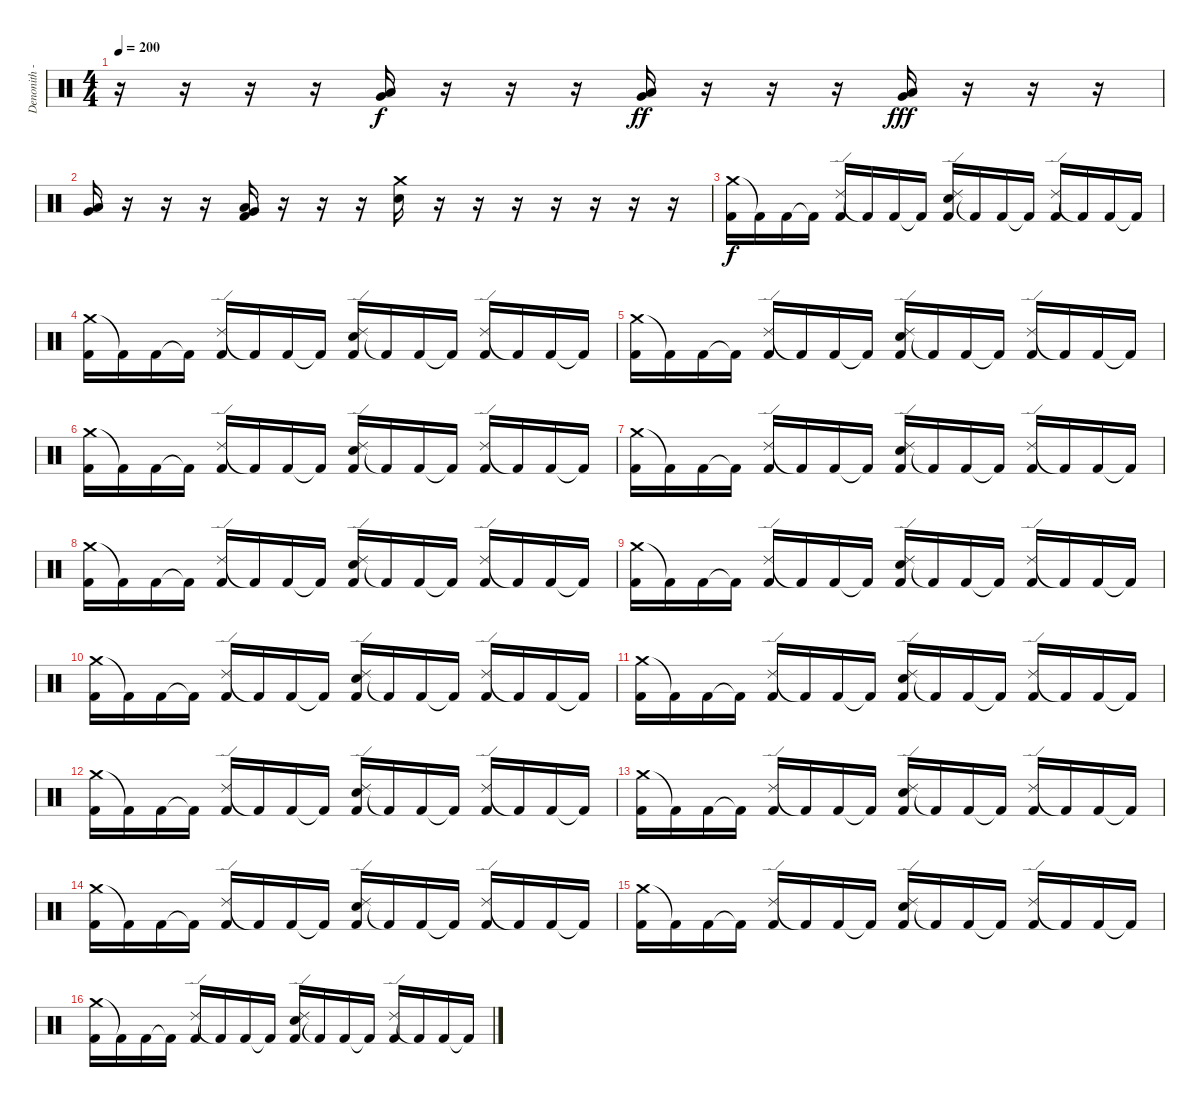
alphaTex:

\track ("Denonith - Spyros" "Denonith -") {instrument percussion}
\staff {score}
\articulation defaults
\ts (4 4)
\tempo 200
\clef neutral
\ks c
r.16{dy f} r.16 r.16 r.16 ("Very Low Tom (hit)" "Low Floor Tom (hit)").16 r.16 r.16 r.16 ("Low Floor Tom (hit)" "Very Low Tom (hit)").16{dy ff} r.16 r.16 r.16 ("Very Low Tom (hit)" "Low Floor Tom (hit)").16{dy fff} r.16 r.16 r.16 |
("Low Floor Tom (hit)" "Very Low Tom (hit)").16 r.16 r.16 r.16 ("Low Floor Tom (hit)" "Very Low Tom (hit)" "Kick (hit) 2").16 r.16 r.16 r.16 ("Crash medium (hit)" "Electric Snare (hit)").16 r.16 r.16 r.16 r.16 r.16 r.16 r.16 |
("Crash medium (hit)" "Kick (hit) 2").16{dy f} "Kick (hit) 2"{t}.16 "Kick (hit) 2".16 "Kick (hit) 2"{t}.16 ("Ride (edge) 2" "Kick (hit) 2").16 "Kick (hit) 2"{t}.16 "Kick (hit) 2".16 "Kick (hit) 2"{t}.16 ("Ride (edge) 2" "Electric Snare (hit)" "Kick (hit) 2").16 "Kick (hit) 2"{t}.16 "Kick (hit) 2".16 "Kick (hit) 2"{t}.16 ("Ride (edge) 2" "Kick (hit) 2").16 "Kick (hit) 2"{t}.16 "Kick (hit) 2".16 "Kick (hit) 2"{t}.16 |
("Crash medium (hit)" "Kick (hit) 2").16 "Kick (hit) 2"{t}.16 "Kick (hit) 2".16 "Kick (hit) 2"{t}.16 ("Ride (edge) 2" "Kick (hit) 2").16 "Kick (hit) 2"{t}.16 "Kick (hit) 2".16 "Kick (hit) 2"{t}.16 ("Ride (edge) 2" "Electric Snare (hit)" "Kick (hit) 2").16 "Kick (hit) 2"{t}.16 "Kick (hit) 2".16 "Kick (hit) 2"{t}.16 ("Ride (edge) 2" "Kick (hit) 2").16 "Kick (hit) 2"{t}.16 "Kick (hit) 2".16 "Kick (hit) 2"{t}.16 |
("Crash medium (hit)" "Kick (hit) 2").16 "Kick (hit) 2"{t}.16 "Kick (hit) 2".16 "Kick (hit) 2"{t}.16 ("Ride (edge) 2" "Kick (hit) 2").16 "Kick (hit) 2"{t}.16 "Kick (hit) 2".16 "Kick (hit) 2"{t}.16 ("Ride (edge) 2" "Electric Snare (hit)" "Kick (hit) 2").16 "Kick (hit) 2"{t}.16 "Kick (hit) 2".16 "Kick (hit) 2"{t}.16 ("Ride (edge) 2" "Kick (hit) 2").16 "Kick (hit) 2"{t}.16 "Kick (hit) 2".16 "Kick (hit) 2"{t}.16 |
("Crash medium (hit)" "Kick (hit) 2").16 "Kick (hit) 2"{t}.16 "Kick (hit) 2".16 "Kick (hit) 2"{t}.16 ("Ride (edge) 2" "Kick (hit) 2").16 "Kick (hit) 2"{t}.16 "Kick (hit) 2".16 "Kick (hit) 2"{t}.16 ("Ride (edge) 2" "Electric Snare (hit)" "Kick (hit) 2").16 "Kick (hit) 2"{t}.16 "Kick (hit) 2".16 "Kick (hit) 2"{t}.16 ("Ride (edge) 2" "Kick (hit) 2").16 "Kick (hit) 2"{t}.16 "Kick (hit) 2".16 "Kick (hit) 2"{t}.16 |
("Crash medium (hit)" "Kick (hit) 2").16 "Kick (hit) 2"{t}.16 "Kick (hit) 2".16 "Kick (hit) 2"{t}.16 ("Ride (edge) 2" "Kick (hit) 2").16 "Kick (hit) 2"{t}.16 "Kick (hit) 2".16 "Kick (hit) 2"{t}.16 ("Ride (edge) 2" "Electric Snare (hit)" "Kick (hit) 2").16 "Kick (hit) 2"{t}.16 "Kick (hit) 2".16 "Kick (hit) 2"{t}.16 ("Ride (edge) 2" "Kick (hit) 2").16 "Kick (hit) 2"{t}.16 "Kick (hit) 2".16 "Kick (hit) 2"{t}.16 |
("Crash medium (hit)" "Kick (hit) 2").16 "Kick (hit) 2"{t}.16 "Kick (hit) 2".16 "Kick (hit) 2"{t}.16 ("Ride (edge) 2" "Kick (hit) 2").16 "Kick (hit) 2"{t}.16 "Kick (hit) 2".16 "Kick (hit) 2"{t}.16 ("Ride (edge) 2" "Electric Snare (hit)" "Kick (hit) 2").16 "Kick (hit) 2"{t}.16 "Kick (hit) 2".16 "Kick (hit) 2"{t}.16 ("Ride (edge) 2" "Kick (hit) 2").16 "Kick (hit) 2"{t}.16 "Kick (hit) 2".16 "Kick (hit) 2"{t}.16 |
("Crash medium (hit)" "Kick (hit) 2").16 "Kick (hit) 2"{t}.16 "Kick (hit) 2".16 "Kick (hit) 2"{t}.16 ("Ride (edge) 2" "Kick (hit) 2").16 "Kick (hit) 2"{t}.16 "Kick (hit) 2".16 "Kick (hit) 2"{t}.16 ("Ride (edge) 2" "Electric Snare (hit)" "Kick (hit) 2").16 "Kick (hit) 2"{t}.16 "Kick (hit) 2".16 "Kick (hit) 2"{t}.16 ("Ride (edge) 2" "Kick (hit) 2").16 "Kick (hit) 2"{t}.16 "Kick (hit) 2".16 "Kick (hit) 2"{t}.16 |
("Crash medium (hit)" "Kick (hit) 2").16 "Kick (hit) 2"{t}.16 "Kick (hit) 2".16 "Kick (hit) 2"{t}.16 ("Ride (edge) 2" "Kick (hit) 2").16 "Kick (hit) 2"{t}.16 "Kick (hit) 2".16 "Kick (hit) 2"{t}.16 ("Ride (edge) 2" "Electric Snare (hit)" "Kick (hit) 2").16 "Kick (hit) 2"{t}.16 "Kick (hit) 2".16 "Kick (hit) 2"{t}.16 ("Ride (edge) 2" "Kick (hit) 2").16 "Kick (hit) 2"{t}.16 "Kick (hit) 2".16 "Kick (hit) 2"{t}.16 |
("Crash medium (hit)" "Kick (hit) 2").16 "Kick (hit) 2"{t}.16 "Kick (hit) 2".16 "Kick (hit) 2"{t}.16 ("Ride (edge) 2" "Kick (hit) 2").16 "Kick (hit) 2"{t}.16 "Kick (hit) 2".16 "Kick (hit) 2"{t}.16 ("Ride (edge) 2" "Electric Snare (hit)" "Kick (hit) 2").16 "Kick (hit) 2"{t}.16 "Kick (hit) 2".16 "Kick (hit) 2"{t}.16 ("Ride (edge) 2" "Kick (hit) 2").16 "Kick (hit) 2"{t}.16 "Kick (hit) 2".16 "Kick (hit) 2"{t}.16 |
("Crash medium (hit)" "Kick (hit) 2").16 "Kick (hit) 2"{t}.16 "Kick (hit) 2".16 "Kick (hit) 2"{t}.16 ("Ride (edge) 2" "Kick (hit) 2").16 "Kick (hit) 2"{t}.16 "Kick (hit) 2".16 "Kick (hit) 2"{t}.16 ("Ride (edge) 2" "Electric Snare (hit)" "Kick (hit) 2").16 "Kick (hit) 2"{t}.16 "Kick (hit) 2".16 "Kick (hit) 2"{t}.16 ("Ride (edge) 2" "Kick (hit) 2").16 "Kick (hit) 2"{t}.16 "Kick (hit) 2".16 "Kick (hit) 2"{t}.16 |
("Crash medium (hit)" "Kick (hit) 2").16 "Kick (hit) 2"{t}.16 "Kick (hit) 2".16 "Kick (hit) 2"{t}.16 ("Ride (edge) 2" "Kick (hit) 2").16 "Kick (hit) 2"{t}.16 "Kick (hit) 2".16 "Kick (hit) 2"{t}.16 ("Ride (edge) 2" "Electric Snare (hit)" "Kick (hit) 2").16 "Kick (hit) 2"{t}.16 "Kick (hit) 2".16 "Kick (hit) 2"{t}.16 ("Ride (edge) 2" "Kick (hit) 2").16 "Kick (hit) 2"{t}.16 "Kick (hit) 2".16 "Kick (hit) 2"{t}.16 |
("Crash medium (hit)" "Kick (hit) 2").16 "Kick (hit) 2"{t}.16 "Kick (hit) 2".16 "Kick (hit) 2"{t}.16 ("Ride (edge) 2" "Kick (hit) 2").16 "Kick (hit) 2"{t}.16 "Kick (hit) 2".16 "Kick (hit) 2"{t}.16 ("Ride (edge) 2" "Electric Snare (hit)" "Kick (hit) 2").16 "Kick (hit) 2"{t}.16 "Kick (hit) 2".16 "Kick (hit) 2"{t}.16 ("Ride (edge) 2" "Kick (hit) 2").16 "Kick (hit) 2"{t}.16 "Kick (hit) 2".16 "Kick (hit) 2"{t}.16 |
("Crash medium (hit)" "Kick (hit) 2").16 "Kick (hit) 2"{t}.16 "Kick (hit) 2".16 "Kick (hit) 2"{t}.16 ("Ride (edge) 2" "Kick (hit) 2").16 "Kick (hit) 2"{t}.16 "Kick (hit) 2".16 "Kick (hit) 2"{t}.16 ("Ride (edge) 2" "Electric Snare (hit)" "Kick (hit) 2").16 "Kick (hit) 2"{t}.16 "Kick (hit) 2".16 "Kick (hit) 2"{t}.16 ("Ride (edge) 2" "Kick (hit) 2").16 "Kick (hit) 2"{t}.16 "Kick (hit) 2".16 "Kick (hit) 2"{t}.16 |
("Crash medium (hit)" "Kick (hit) 2").16 "Kick (hit) 2"{t}.16 "Kick (hit) 2".16 "Kick (hit) 2"{t}.16 ("Ride (edge) 2" "Kick (hit) 2").16 "Kick (hit) 2"{t}.16 "Kick (hit) 2".16 "Kick (hit) 2"{t}.16 ("Ride (edge) 2" "Electric Snare (hit)" "Kick (hit) 2").16 "Kick (hit) 2"{t}.16 "Kick (hit) 2".16 "Kick (hit) 2"{t}.16 ("Ride (edge) 2" "Kick (hit) 2").16 "Kick (hit) 2"{t}.16 "Kick (hit) 2".16 "Kick (hit) 2"{t}.16
